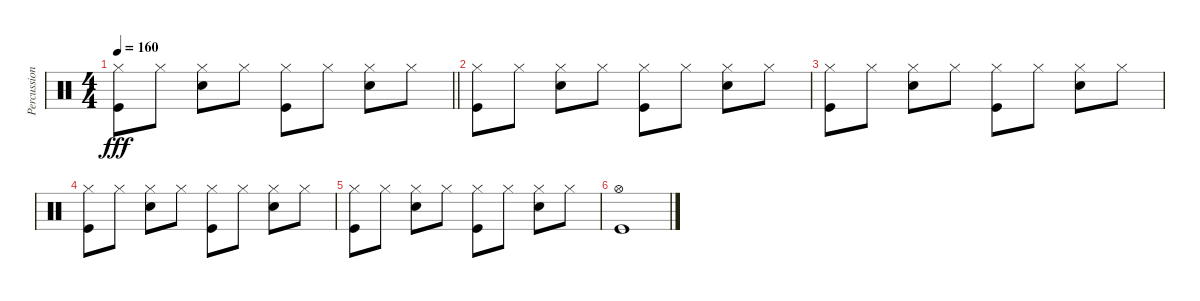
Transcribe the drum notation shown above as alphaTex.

\track ("Percussion" "Percussion") {instrument percussion}
\staff {score}
\articulation defaults
\ts (4 4)
\tempo 160
\clef neutral
\barLineRight lightlight
\ks c
("Hi-Hat (closed)" "Kick (hit)").8{dy fff} "Hi-Hat (closed)".8 ("Hi-Hat (closed)" "Snare (hit) 2").8 "Hi-Hat (closed)".8 ("Hi-Hat (closed)" "Kick (hit)").8 "Hi-Hat (closed)".8 ("Hi-Hat (closed)" "Snare (hit) 2").8 "Hi-Hat (closed)".8 |
\section ("" "")
("Hi-Hat (closed)" "Kick (hit)").8 "Hi-Hat (closed)".8 ("Hi-Hat (closed)" "Snare (hit) 2").8 "Hi-Hat (closed)".8 ("Hi-Hat (closed)" "Kick (hit)").8 "Hi-Hat (closed)".8 ("Hi-Hat (closed)" "Snare (hit) 2").8 "Hi-Hat (closed)".8 |
("Hi-Hat (closed)" "Kick (hit)").8 "Hi-Hat (closed)".8 ("Hi-Hat (closed)" "Snare (hit) 2").8 "Hi-Hat (closed)".8 ("Hi-Hat (closed)" "Kick (hit)").8 "Hi-Hat (closed)".8 ("Hi-Hat (closed)" "Snare (hit) 2").8 "Hi-Hat (closed)".8 |
("Hi-Hat (closed)" "Kick (hit)").8 "Hi-Hat (closed)".8 ("Hi-Hat (closed)" "Snare (hit) 2").8 "Hi-Hat (closed)".8 ("Hi-Hat (closed)" "Kick (hit)").8 "Hi-Hat (closed)".8 ("Hi-Hat (closed)" "Snare (hit) 2").8 "Hi-Hat (closed)".8 |
("Hi-Hat (closed)" "Kick (hit)").8 "Hi-Hat (closed)".8 ("Hi-Hat (closed)" "Snare (hit) 2").8 "Hi-Hat (closed)".8 ("Hi-Hat (closed)" "Kick (hit)").8 "Hi-Hat (closed)".8 ("Hi-Hat (closed)" "Snare (hit) 2").8 "Hi-Hat (closed)".8 |
("Hi-Hat (open)" "Kick (hit)").1
